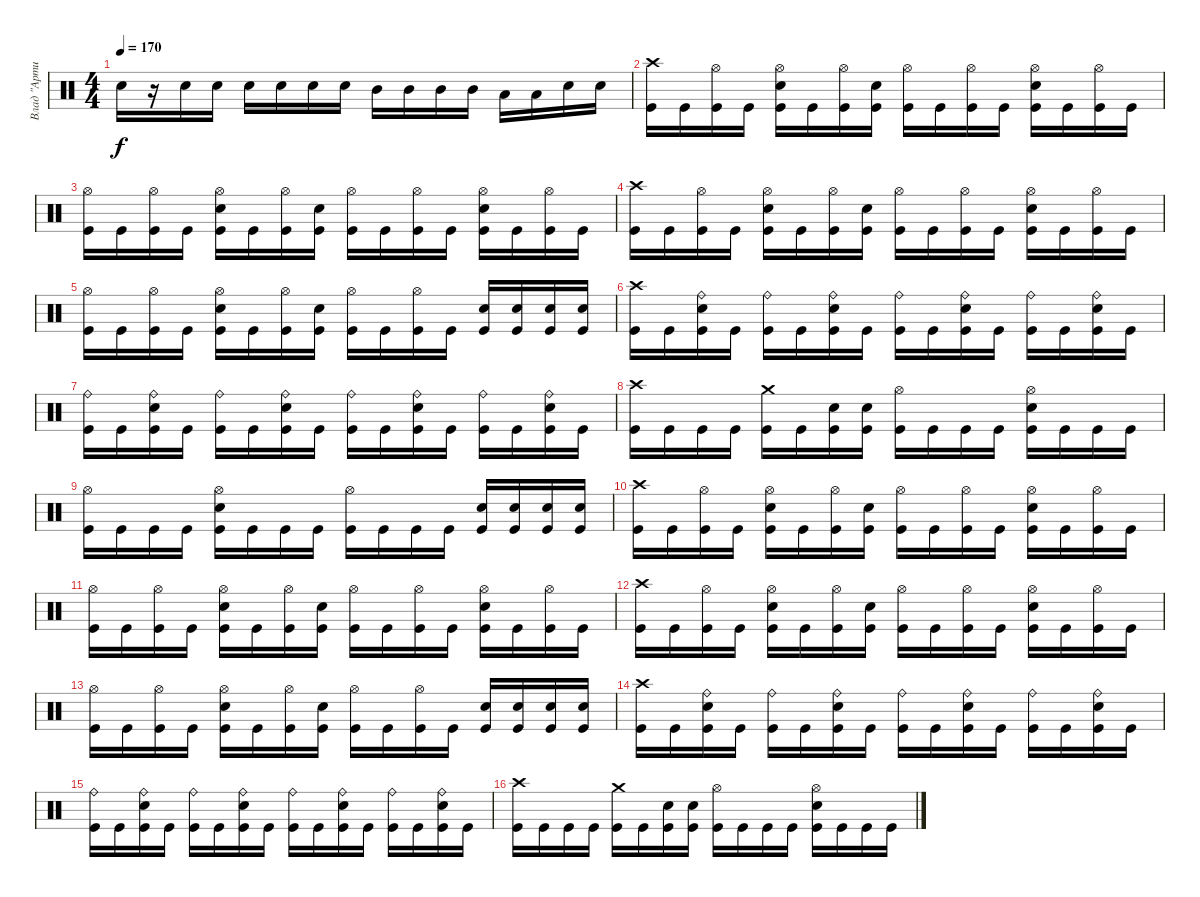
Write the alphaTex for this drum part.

\track ("Влад \"Артист\"" "Влад \"Арти") {instrument percussion}
\staff {score}
\articulation defaults
\ts (4 4)
\tempo 170
\clef neutral
\ks c "Snare (hit) 2".16{dy f}
r.16 "Snare (hit) 2".16 "Snare (hit) 2".16 "Snare (hit) 2".16 "Snare (hit) 2".16 "Snare (hit) 2".16 "Snare (hit) 2".16 "Mid Tom (hit)".16 "Mid Tom (hit)".16 "Mid Tom (hit)".16 "Mid Tom (hit)".16 "Low Tom (hit)".16 "Low Tom (hit)".16 "Snare (hit) 2".16 "Snare (hit) 2".16 |
("Crash high (hit)" "Kick (hit)").16 "Kick (hit)".16 ("Hi-Hat (open)" "Kick (hit)").16 "Kick (hit)".16 ("Snare (hit) 2" "Hi-Hat (open)" "Kick (hit)").16 "Kick (hit)".16 ("Hi-Hat (open)" "Kick (hit)").16 ("Kick (hit)" "Snare (hit) 2").16 ("Hi-Hat (open)" "Kick (hit)").16 "Kick (hit)".16 ("Hi-Hat (open)" "Kick (hit)").16 "Kick (hit)".16 ("Hi-Hat (open)" "Kick (hit)" "Snare (hit) 2").16 "Kick (hit)".16 ("Hi-Hat (open)" "Kick (hit)").16 "Kick (hit)".16 |
("Hi-Hat (open)" "Kick (hit)").16 "Kick (hit)".16 ("Hi-Hat (open)" "Kick (hit)").16 "Kick (hit)".16 ("Snare (hit) 2" "Hi-Hat (open)" "Kick (hit)").16 "Kick (hit)".16 ("Hi-Hat (open)" "Kick (hit)").16 ("Snare (hit) 2" "Kick (hit)").16 ("Kick (hit)" "Hi-Hat (open)").16 "Kick (hit)".16 ("Hi-Hat (open)" "Kick (hit)").16 "Kick (hit)".16 ("Hi-Hat (open)" "Kick (hit)" "Snare (hit) 2").16 "Kick (hit)".16 ("Hi-Hat (open)" "Kick (hit)").16 "Kick (hit)".16 |
("Crash high (hit)" "Kick (hit)").16 "Kick (hit)".16 ("Hi-Hat (open)" "Kick (hit)").16 "Kick (hit)".16 ("Snare (hit) 2" "Hi-Hat (open)" "Kick (hit)").16 "Kick (hit)".16 ("Hi-Hat (open)" "Kick (hit)").16 ("Kick (hit)" "Snare (hit) 2").16 ("Hi-Hat (open)" "Kick (hit)").16 "Kick (hit)".16 ("Hi-Hat (open)" "Kick (hit)").16 "Kick (hit)".16 ("Hi-Hat (open)" "Kick (hit)" "Snare (hit) 2").16 "Kick (hit)".16 ("Hi-Hat (open)" "Kick (hit)").16 "Kick (hit)".16 |
("Hi-Hat (open)" "Kick (hit)").16 "Kick (hit)".16 ("Hi-Hat (open)" "Kick (hit)").16 "Kick (hit)".16 ("Snare (hit) 2" "Hi-Hat (open)" "Kick (hit)").16 "Kick (hit)".16 ("Hi-Hat (open)" "Kick (hit)").16 ("Snare (hit) 2" "Kick (hit)").16 ("Kick (hit)" "Hi-Hat (open)").16 "Kick (hit)".16 ("Hi-Hat (open)" "Kick (hit)").16 "Kick (hit)".16 ("Kick (hit)" "Snare (hit) 2").16 ("Snare (hit) 2" "Kick (hit)").16 ("Snare (hit) 2" "Kick (hit)").16 ("Snare (hit) 2" "Kick (hit)").16 |
("Crash high (hit)" "Kick (hit)").16 "Kick (hit)".16 ("Ride (bell)" "Snare (hit) 2" "Kick (hit)").16 "Kick (hit)".16 ("Ride (bell)" "Kick (hit)").16 "Kick (hit)".16 ("Ride (bell)" "Snare (hit) 2" "Kick (hit)").16 "Kick (hit)".16 ("Ride (bell)" "Kick (hit)").16 "Kick (hit)".16 ("Ride (bell)" "Snare (hit) 2" "Kick (hit)").16 "Kick (hit)".16 ("Ride (bell)" "Kick (hit)").16 "Kick (hit)".16 ("Ride (bell)" "Snare (hit) 2" "Kick (hit)").16 "Kick (hit)".16 |
("Ride (bell)" "Kick (hit)").16 "Kick (hit)".16 ("Ride (bell)" "Snare (hit) 2" "Kick (hit)").16 "Kick (hit)".16 ("Ride (bell)" "Kick (hit)").16 "Kick (hit)".16 ("Snare (hit) 2" "Ride (bell)" "Kick (hit)").16 "Kick (hit)".16 ("Ride (bell)" "Kick (hit)").16 "Kick (hit)".16 ("Ride (bell)" "Snare (hit) 2" "Kick (hit)").16 "Kick (hit)".16 ("Ride (bell)" "Kick (hit)").16 "Kick (hit)".16 ("Ride (bell)" "Snare (hit) 2" "Kick (hit)").16 "Kick (hit)".16 |
("Crash high (hit)" "Kick (hit)").16 "Kick (hit)".16 "Kick (hit)".16 "Kick (hit)".16 ("Crash medium (hit)" "Kick (hit)").16 "Kick (hit)".16 ("Snare (hit) 2" "Kick (hit)").16 ("Snare (hit) 2" "Kick (hit)").16 ("Hi-Hat (open)" "Kick (hit)").16 "Kick (hit)".16 "Kick (hit)".16 "Kick (hit)".16 ("Hi-Hat (open)" "Snare (hit) 2" "Kick (hit)").16 "Kick (hit)".16 "Kick (hit)".16 "Kick (hit)".16 |
("Hi-Hat (open)" "Kick (hit)").16 "Kick (hit)".16 "Kick (hit)".16 "Kick (hit)".16 ("Snare (hit) 2" "Hi-Hat (open)" "Kick (hit)").16 "Kick (hit)".16 "Kick (hit)".16 "Kick (hit)".16 ("Hi-Hat (open)" "Kick (hit)").16 "Kick (hit)".16 "Kick (hit)".16 "Kick (hit)".16 ("Snare (hit) 2" "Kick (hit)").16 ("Snare (hit) 2" "Kick (hit)").16 ("Snare (hit) 2" "Kick (hit)").16 ("Snare (hit) 2" "Kick (hit)").16 |
("Crash high (hit)" "Kick (hit)").16 "Kick (hit)".16 ("Hi-Hat (open)" "Kick (hit)").16 "Kick (hit)".16 ("Snare (hit) 2" "Hi-Hat (open)" "Kick (hit)").16 "Kick (hit)".16 ("Hi-Hat (open)" "Kick (hit)").16 ("Kick (hit)" "Snare (hit) 2").16 ("Hi-Hat (open)" "Kick (hit)").16 "Kick (hit)".16 ("Hi-Hat (open)" "Kick (hit)").16 "Kick (hit)".16 ("Hi-Hat (open)" "Kick (hit)" "Snare (hit) 2").16 "Kick (hit)".16 ("Hi-Hat (open)" "Kick (hit)").16 "Kick (hit)".16 |
("Hi-Hat (open)" "Kick (hit)").16 "Kick (hit)".16 ("Hi-Hat (open)" "Kick (hit)").16 "Kick (hit)".16 ("Snare (hit) 2" "Hi-Hat (open)" "Kick (hit)").16 "Kick (hit)".16 ("Hi-Hat (open)" "Kick (hit)").16 ("Snare (hit) 2" "Kick (hit)").16 ("Kick (hit)" "Hi-Hat (open)").16 "Kick (hit)".16 ("Hi-Hat (open)" "Kick (hit)").16 "Kick (hit)".16 ("Hi-Hat (open)" "Kick (hit)" "Snare (hit) 2").16 "Kick (hit)".16 ("Hi-Hat (open)" "Kick (hit)").16 "Kick (hit)".16 |
("Crash high (hit)" "Kick (hit)").16 "Kick (hit)".16 ("Hi-Hat (open)" "Kick (hit)").16 "Kick (hit)".16 ("Snare (hit) 2" "Hi-Hat (open)" "Kick (hit)").16 "Kick (hit)".16 ("Hi-Hat (open)" "Kick (hit)").16 ("Kick (hit)" "Snare (hit) 2").16 ("Hi-Hat (open)" "Kick (hit)").16 "Kick (hit)".16 ("Hi-Hat (open)" "Kick (hit)").16 "Kick (hit)".16 ("Hi-Hat (open)" "Kick (hit)" "Snare (hit) 2").16 "Kick (hit)".16 ("Hi-Hat (open)" "Kick (hit)").16 "Kick (hit)".16 |
("Hi-Hat (open)" "Kick (hit)").16 "Kick (hit)".16 ("Hi-Hat (open)" "Kick (hit)").16 "Kick (hit)".16 ("Snare (hit) 2" "Hi-Hat (open)" "Kick (hit)").16 "Kick (hit)".16 ("Hi-Hat (open)" "Kick (hit)").16 ("Snare (hit) 2" "Kick (hit)").16 ("Kick (hit)" "Hi-Hat (open)").16 "Kick (hit)".16 ("Hi-Hat (open)" "Kick (hit)").16 "Kick (hit)".16 ("Kick (hit)" "Snare (hit) 2").16 ("Snare (hit) 2" "Kick (hit)").16 ("Snare (hit) 2" "Kick (hit)").16 ("Snare (hit) 2" "Kick (hit)").16 |
("Crash high (hit)" "Kick (hit)").16 "Kick (hit)".16 ("Ride (bell)" "Snare (hit) 2" "Kick (hit)").16 "Kick (hit)".16 ("Ride (bell)" "Kick (hit)").16 "Kick (hit)".16 ("Ride (bell)" "Snare (hit) 2" "Kick (hit)").16 "Kick (hit)".16 ("Ride (bell)" "Kick (hit)").16 "Kick (hit)".16 ("Ride (bell)" "Snare (hit) 2" "Kick (hit)").16 "Kick (hit)".16 ("Ride (bell)" "Kick (hit)").16 "Kick (hit)".16 ("Ride (bell)" "Snare (hit) 2" "Kick (hit)").16 "Kick (hit)".16 |
("Ride (bell)" "Kick (hit)").16 "Kick (hit)".16 ("Ride (bell)" "Snare (hit) 2" "Kick (hit)").16 "Kick (hit)".16 ("Ride (bell)" "Kick (hit)").16 "Kick (hit)".16 ("Snare (hit) 2" "Ride (bell)" "Kick (hit)").16 "Kick (hit)".16 ("Ride (bell)" "Kick (hit)").16 "Kick (hit)".16 ("Ride (bell)" "Snare (hit) 2" "Kick (hit)").16 "Kick (hit)".16 ("Ride (bell)" "Kick (hit)").16 "Kick (hit)".16 ("Ride (bell)" "Snare (hit) 2" "Kick (hit)").16 "Kick (hit)".16 |
("Crash high (hit)" "Kick (hit)").16 "Kick (hit)".16 "Kick (hit)".16 "Kick (hit)".16 ("Crash medium (hit)" "Kick (hit)").16 "Kick (hit)".16 ("Snare (hit) 2" "Kick (hit)").16 ("Snare (hit) 2" "Kick (hit)").16 ("Hi-Hat (open)" "Kick (hit)").16 "Kick (hit)".16 "Kick (hit)".16 "Kick (hit)".16 ("Hi-Hat (open)" "Snare (hit) 2" "Kick (hit)").16 "Kick (hit)".16 "Kick (hit)".16 "Kick (hit)".16
